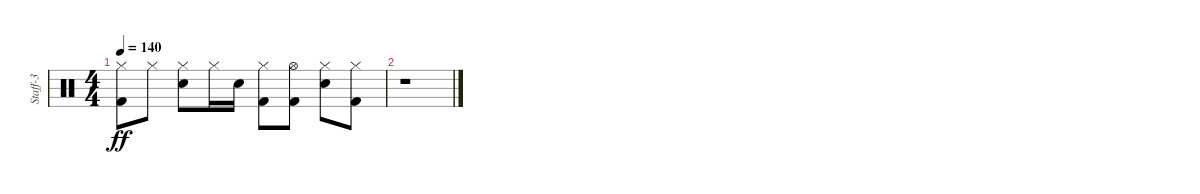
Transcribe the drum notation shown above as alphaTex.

\track ("Staff-3" "Staff-3") {instrument percussion}
\staff {score}
\articulation defaults
\ts (4 4)
\tempo 140
\clef neutral
\ks c
("Kick (hit) 2" "Hi-Hat (closed)").8{dy ff} "Hi-Hat (closed)".8 ("Snare (hit) 2" "Hi-Hat (closed)").8 "Hi-Hat (closed)".16 "Snare (hit) 2".16 ("Kick (hit) 2" "Hi-Hat (closed)").8 ("Kick (hit) 2" "Hi-Hat (open)").8 ("Snare (hit) 2" "Hi-Hat (closed)").8 ("Kick (hit) 2" "Hi-Hat (closed)").8 |
r.1
